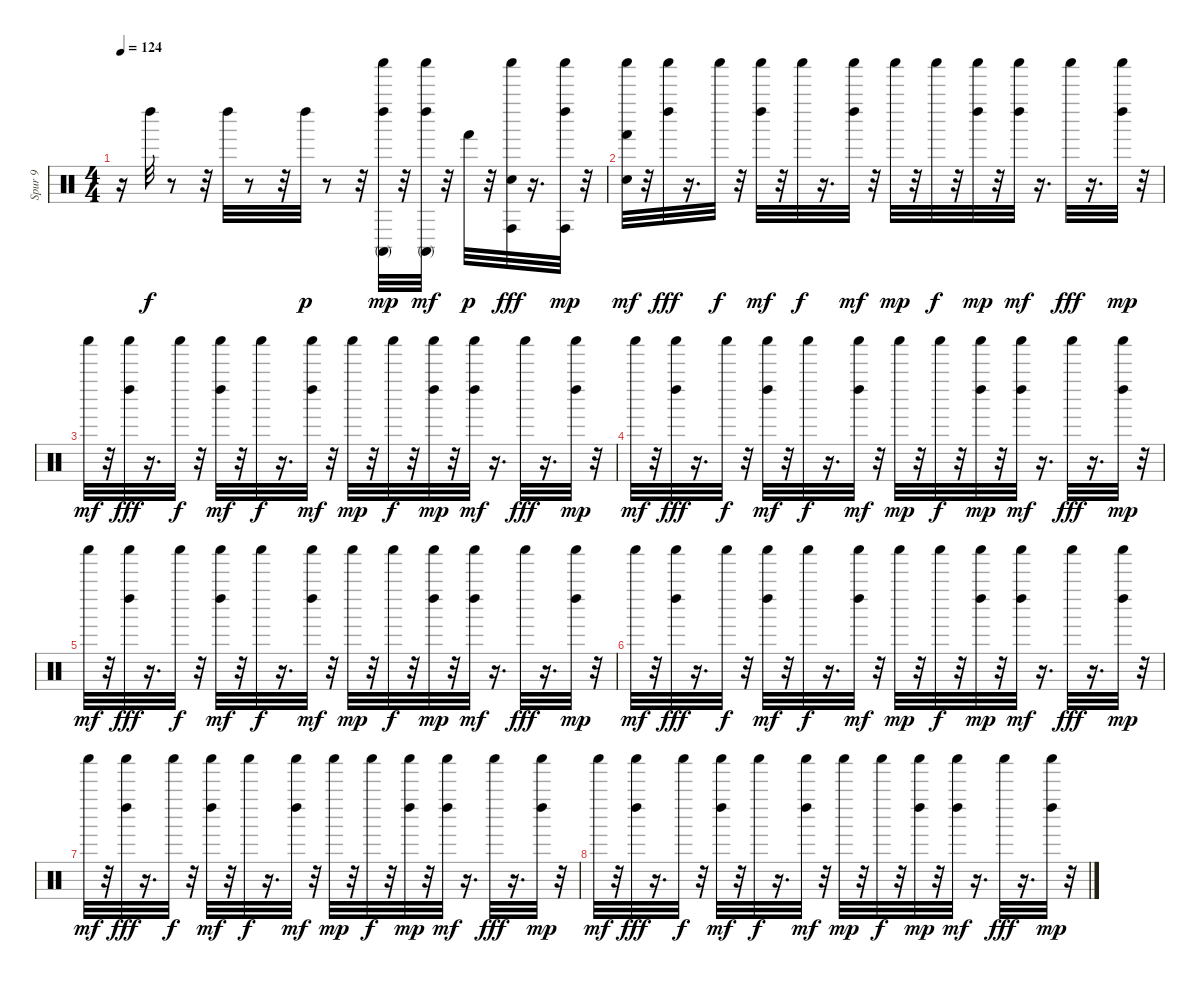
\track ("Spur 9" "Spur 9") {instrument percussion}
\staff {score}
\articulation defaults
\ts (4 4)
\tempo 124
\clef neutral
\ks c
r.16{dy mp} "Left Maraca (hit)".32{dy f} r.8 r.32 "Left Maraca (hit)".32 r.8 r.32 "Left Maraca (hit)".32{dy p} r.8 r.32 ("Conga high (mute)" "Left Maraca (hit)" "Shaker (hit)").32{dy mp} r.32 ("Conga high (mute)" "Left Maraca (hit)" "Shaker (hit)").32{dy mf} r.32 "Hand (hit)".32{dy p} r.32 ("Electric Snare (hit)" "Conga high (hit)" "Shaker (hit)").32{dy fff} r.16{d} ("Conga high (hit)" "Left Maraca (hit)" "Shaker (hit)").32{dy mp} r.32 |
("Electric Snare (hit)" "Hand (hit)" "Shaker (hit)").32{dy mf} r.32 ("Left Maraca (hit)" "Shaker (hit)").32{dy fff} r.16{d} "Shaker (hit)".32{dy f} r.32 ("Left Maraca (hit)" "Shaker (hit)").32{dy mf} r.32 "Shaker (hit)".32{dy f} r.16{d} ("Left Maraca (hit)" "Shaker (hit)").32{dy mf} r.32 "Shaker (hit)".32{dy mp} r.32 "Shaker (hit)".32{dy f} r.32 ("Left Maraca (hit)" "Shaker (hit)").32{dy mp} r.32 ("Left Maraca (hit)" "Shaker (hit)").32{dy mf} r.16{d} "Shaker (hit)".32{dy fff} r.16{d} ("Left Maraca (hit)" "Shaker (hit)").32{dy mp} r.32 |
"Shaker (hit)".32{dy mf} r.32 ("Left Maraca (hit)" "Shaker (hit)").32{dy fff} r.16{d} "Shaker (hit)".32{dy f} r.32 ("Left Maraca (hit)" "Shaker (hit)").32{dy mf} r.32 "Shaker (hit)".32{dy f} r.16{d} ("Left Maraca (hit)" "Shaker (hit)").32{dy mf} r.32 "Shaker (hit)".32{dy mp} r.32 "Shaker (hit)".32{dy f} r.32 ("Left Maraca (hit)" "Shaker (hit)").32{dy mp} r.32 ("Left Maraca (hit)" "Shaker (hit)").32{dy mf} r.16{d} "Shaker (hit)".32{dy fff} r.16{d} ("Left Maraca (hit)" "Shaker (hit)").32{dy mp} r.32 |
"Shaker (hit)".32{dy mf} r.32 ("Left Maraca (hit)" "Shaker (hit)").32{dy fff} r.16{d} "Shaker (hit)".32{dy f} r.32 ("Left Maraca (hit)" "Shaker (hit)").32{dy mf} r.32 "Shaker (hit)".32{dy f} r.16{d} ("Left Maraca (hit)" "Shaker (hit)").32{dy mf} r.32 "Shaker (hit)".32{dy mp} r.32 "Shaker (hit)".32{dy f} r.32 ("Left Maraca (hit)" "Shaker (hit)").32{dy mp} r.32 ("Left Maraca (hit)" "Shaker (hit)").32{dy mf} r.16{d} "Shaker (hit)".32{dy fff} r.16{d} ("Left Maraca (hit)" "Shaker (hit)").32{dy mp} r.32 |
"Shaker (hit)".32{dy mf} r.32 ("Left Maraca (hit)" "Shaker (hit)").32{dy fff} r.16{d} "Shaker (hit)".32{dy f} r.32 ("Left Maraca (hit)" "Shaker (hit)").32{dy mf} r.32 "Shaker (hit)".32{dy f} r.16{d} ("Left Maraca (hit)" "Shaker (hit)").32{dy mf} r.32 "Shaker (hit)".32{dy mp} r.32 "Shaker (hit)".32{dy f} r.32 ("Left Maraca (hit)" "Shaker (hit)").32{dy mp} r.32 ("Left Maraca (hit)" "Shaker (hit)").32{dy mf} r.16{d} "Shaker (hit)".32{dy fff} r.16{d} ("Left Maraca (hit)" "Shaker (hit)").32{dy mp} r.32 |
"Shaker (hit)".32{dy mf} r.32 ("Left Maraca (hit)" "Shaker (hit)").32{dy fff} r.16{d} "Shaker (hit)".32{dy f} r.32 ("Left Maraca (hit)" "Shaker (hit)").32{dy mf} r.32 "Shaker (hit)".32{dy f} r.16{d} ("Left Maraca (hit)" "Shaker (hit)").32{dy mf} r.32 "Shaker (hit)".32{dy mp} r.32 "Shaker (hit)".32{dy f} r.32 ("Left Maraca (hit)" "Shaker (hit)").32{dy mp} r.32 ("Left Maraca (hit)" "Shaker (hit)").32{dy mf} r.16{d} "Shaker (hit)".32{dy fff} r.16{d} ("Left Maraca (hit)" "Shaker (hit)").32{dy mp} r.32 |
"Shaker (hit)".32{dy mf} r.32 ("Left Maraca (hit)" "Shaker (hit)").32{dy fff} r.16{d} "Shaker (hit)".32{dy f} r.32 ("Left Maraca (hit)" "Shaker (hit)").32{dy mf} r.32 "Shaker (hit)".32{dy f} r.16{d} ("Left Maraca (hit)" "Shaker (hit)").32{dy mf} r.32 "Shaker (hit)".32{dy mp} r.32 "Shaker (hit)".32{dy f} r.32 ("Left Maraca (hit)" "Shaker (hit)").32{dy mp} r.32 ("Left Maraca (hit)" "Shaker (hit)").32{dy mf} r.16{d} "Shaker (hit)".32{dy fff} r.16{d} ("Left Maraca (hit)" "Shaker (hit)").32{dy mp} r.32 |
"Shaker (hit)".32{dy mf} r.32 ("Left Maraca (hit)" "Shaker (hit)").32{dy fff} r.16{d} "Shaker (hit)".32{dy f} r.32 ("Left Maraca (hit)" "Shaker (hit)").32{dy mf} r.32 "Shaker (hit)".32{dy f} r.16{d} ("Left Maraca (hit)" "Shaker (hit)").32{dy mf} r.32 "Shaker (hit)".32{dy mp} r.32 "Shaker (hit)".32{dy f} r.32 ("Left Maraca (hit)" "Shaker (hit)").32{dy mp} r.32 ("Left Maraca (hit)" "Shaker (hit)").32{dy mf} r.16{d} "Shaker (hit)".32{dy fff} r.16{d} ("Left Maraca (hit)" "Shaker (hit)").32{dy mp} r.32
